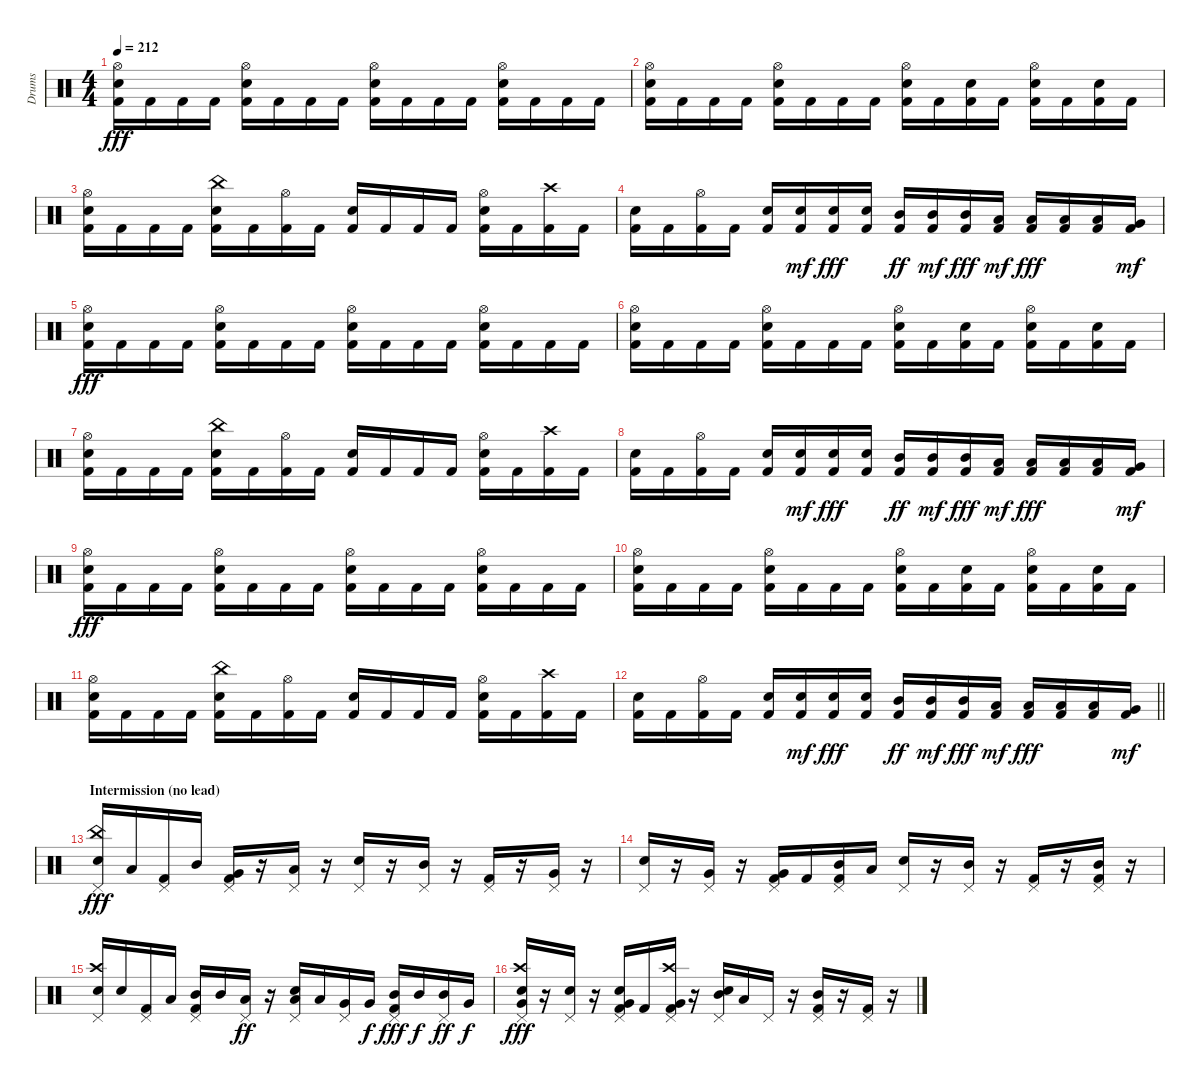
\track ("Drums" "Drums") {instrument percussion}
\staff {score}
\articulation defaults
\ts (4 4)
\tempo 212
\clef neutral
\ks c
("Kick (hit) 2" "Snare (hit) 2" "Hi-Hat (open)").16{dy fff} "Kick (hit) 2".16 "Kick (hit) 2".16 "Kick (hit) 2".16 ("Kick (hit) 2" "Snare (hit) 2" "Hi-Hat (open)").16 "Kick (hit) 2".16 "Kick (hit) 2".16 "Kick (hit) 2".16 ("Kick (hit) 2" "Snare (hit) 2" "Hi-Hat (open)").16 "Kick (hit) 2".16 "Kick (hit) 2".16 "Kick (hit) 2".16 ("Kick (hit) 2" "Snare (hit) 2" "Hi-Hat (open)").16 "Kick (hit) 2".16 "Kick (hit) 2".16 "Kick (hit) 2".16 |
("Kick (hit) 2" "Snare (hit) 2" "Hi-Hat (open)").16 "Kick (hit) 2".16 "Kick (hit) 2".16 "Kick (hit) 2".16 ("Kick (hit) 2" "Snare (hit) 2" "Hi-Hat (open)").16 "Kick (hit) 2".16 "Kick (hit) 2".16 "Kick (hit) 2".16 ("Kick (hit) 2" "Snare (hit) 2" "Hi-Hat (open)").16 "Kick (hit) 2".16 ("Kick (hit) 2" "Snare (hit) 2").16 "Kick (hit) 2".16 ("Kick (hit) 2" "Snare (hit) 2" "Hi-Hat (open)").16 "Kick (hit) 2".16 ("Kick (hit) 2" "Snare (hit) 2").16 "Kick (hit) 2".16 |
("Kick (hit) 2" "Snare (hit) 2" "Hi-Hat (open)").16 "Kick (hit) 2".16 "Kick (hit) 2".16 "Kick (hit) 2".16 ("Kick (hit) 2" "Snare (hit) 2" "China (hit)").16 "Kick (hit) 2".16 ("Kick (hit) 2" "Hi-Hat (open)").16 "Kick (hit) 2".16 ("Kick (hit) 2" "Snare (hit) 2").16 "Kick (hit) 2".16 "Kick (hit) 2".16 "Kick (hit) 2".16 ("Kick (hit) 2" "Snare (hit) 2" "Hi-Hat (open)").16 "Kick (hit) 2".16 ("Kick (hit) 2" "Crash high (hit)").16 "Kick (hit) 2".16 |
("Kick (hit) 2" "Snare (hit) 2").16 "Kick (hit) 2".16 ("Kick (hit) 2" "Hi-Hat (open)").16 "Kick (hit) 2".16 ("Kick (hit) 2" "Snare (hit) 2").16 ("Kick (hit) 2" "Snare (hit) 2").16{dy mf} ("Kick (hit) 2" "Snare (hit) 2").16{dy fff} ("Kick (hit) 2" "Snare (hit) 2").16 ("Kick (hit) 2" "Mid Tom (hit)").16{dy ff} ("Kick (hit) 2" "Mid Tom (hit)").16{dy mf} ("Kick (hit) 2" "Mid Tom (hit)").16{dy fff} ("Kick (hit) 2" "Low Tom (hit)").16{dy mf} ("Kick (hit) 2" "Low Tom (hit)").16{dy fff} ("Kick (hit) 2" "Low Tom (hit)").16 ("Kick (hit) 2" "Low Tom (hit)").16 ("Kick (hit) 2" "Very Low Tom (hit)").16{dy mf} |
("Kick (hit) 2" "Snare (hit) 2" "Hi-Hat (open)").16{dy fff} "Kick (hit) 2".16 "Kick (hit) 2".16 "Kick (hit) 2".16 ("Kick (hit) 2" "Snare (hit) 2" "Hi-Hat (open)").16 "Kick (hit) 2".16 "Kick (hit) 2".16 "Kick (hit) 2".16 ("Kick (hit) 2" "Snare (hit) 2" "Hi-Hat (open)").16 "Kick (hit) 2".16 "Kick (hit) 2".16 "Kick (hit) 2".16 ("Kick (hit) 2" "Snare (hit) 2" "Hi-Hat (open)").16 "Kick (hit) 2".16 "Kick (hit) 2".16 "Kick (hit) 2".16 |
("Kick (hit) 2" "Snare (hit) 2" "Hi-Hat (open)").16 "Kick (hit) 2".16 "Kick (hit) 2".16 "Kick (hit) 2".16 ("Kick (hit) 2" "Snare (hit) 2" "Hi-Hat (open)").16 "Kick (hit) 2".16 "Kick (hit) 2".16 "Kick (hit) 2".16 ("Kick (hit) 2" "Snare (hit) 2" "Hi-Hat (open)").16 "Kick (hit) 2".16 ("Kick (hit) 2" "Snare (hit) 2").16 "Kick (hit) 2".16 ("Kick (hit) 2" "Snare (hit) 2" "Hi-Hat (open)").16 "Kick (hit) 2".16 ("Kick (hit) 2" "Snare (hit) 2").16 "Kick (hit) 2".16 |
("Kick (hit) 2" "Snare (hit) 2" "Hi-Hat (open)").16 "Kick (hit) 2".16 "Kick (hit) 2".16 "Kick (hit) 2".16 ("Kick (hit) 2" "Snare (hit) 2" "China (hit)").16 "Kick (hit) 2".16 ("Kick (hit) 2" "Hi-Hat (open)").16 "Kick (hit) 2".16 ("Kick (hit) 2" "Snare (hit) 2").16 "Kick (hit) 2".16 "Kick (hit) 2".16 "Kick (hit) 2".16 ("Kick (hit) 2" "Snare (hit) 2" "Hi-Hat (open)").16 "Kick (hit) 2".16 ("Kick (hit) 2" "Crash high (hit)").16 "Kick (hit) 2".16 |
("Kick (hit) 2" "Snare (hit) 2").16 "Kick (hit) 2".16 ("Kick (hit) 2" "Hi-Hat (open)").16 "Kick (hit) 2".16 ("Kick (hit) 2" "Snare (hit) 2").16 ("Kick (hit) 2" "Snare (hit) 2").16{dy mf} ("Kick (hit) 2" "Snare (hit) 2").16{dy fff} ("Kick (hit) 2" "Snare (hit) 2").16 ("Kick (hit) 2" "Mid Tom (hit)").16{dy ff} ("Kick (hit) 2" "Mid Tom (hit)").16{dy mf} ("Kick (hit) 2" "Mid Tom (hit)").16{dy fff} ("Kick (hit) 2" "Low Tom (hit)").16{dy mf} ("Kick (hit) 2" "Low Tom (hit)").16{dy fff} ("Kick (hit) 2" "Low Tom (hit)").16 ("Kick (hit) 2" "Low Tom (hit)").16 ("Kick (hit) 2" "Very Low Tom (hit)").16{dy mf} |
("Kick (hit) 2" "Snare (hit) 2" "Hi-Hat (open)").16{dy fff} "Kick (hit) 2".16 "Kick (hit) 2".16 "Kick (hit) 2".16 ("Kick (hit) 2" "Snare (hit) 2" "Hi-Hat (open)").16 "Kick (hit) 2".16 "Kick (hit) 2".16 "Kick (hit) 2".16 ("Kick (hit) 2" "Snare (hit) 2" "Hi-Hat (open)").16 "Kick (hit) 2".16 "Kick (hit) 2".16 "Kick (hit) 2".16 ("Kick (hit) 2" "Snare (hit) 2" "Hi-Hat (open)").16 "Kick (hit) 2".16 "Kick (hit) 2".16 "Kick (hit) 2".16 |
("Kick (hit) 2" "Snare (hit) 2" "Hi-Hat (open)").16 "Kick (hit) 2".16 "Kick (hit) 2".16 "Kick (hit) 2".16 ("Kick (hit) 2" "Snare (hit) 2" "Hi-Hat (open)").16 "Kick (hit) 2".16 "Kick (hit) 2".16 "Kick (hit) 2".16 ("Kick (hit) 2" "Snare (hit) 2" "Hi-Hat (open)").16 "Kick (hit) 2".16 ("Kick (hit) 2" "Snare (hit) 2").16 "Kick (hit) 2".16 ("Kick (hit) 2" "Snare (hit) 2" "Hi-Hat (open)").16 "Kick (hit) 2".16 ("Kick (hit) 2" "Snare (hit) 2").16 "Kick (hit) 2".16 |
("Kick (hit) 2" "Snare (hit) 2" "Hi-Hat (open)").16 "Kick (hit) 2".16 "Kick (hit) 2".16 "Kick (hit) 2".16 ("Kick (hit) 2" "Snare (hit) 2" "China (hit)").16 "Kick (hit) 2".16 ("Kick (hit) 2" "Hi-Hat (open)").16 "Kick (hit) 2".16 ("Kick (hit) 2" "Snare (hit) 2").16 "Kick (hit) 2".16 "Kick (hit) 2".16 "Kick (hit) 2".16 ("Kick (hit) 2" "Snare (hit) 2" "Hi-Hat (open)").16 "Kick (hit) 2".16 ("Kick (hit) 2" "Crash high (hit)").16 "Kick (hit) 2".16 |
\barLineRight lightlight
("Kick (hit) 2" "Snare (hit) 2").16 "Kick (hit) 2".16 ("Kick (hit) 2" "Hi-Hat (open)").16 "Kick (hit) 2".16 ("Kick (hit) 2" "Snare (hit) 2").16 ("Kick (hit) 2" "Snare (hit) 2").16{dy mf} ("Kick (hit) 2" "Snare (hit) 2").16{dy fff} ("Kick (hit) 2" "Snare (hit) 2").16 ("Kick (hit) 2" "Mid Tom (hit)").16{dy ff} ("Kick (hit) 2" "Mid Tom (hit)").16{dy mf} ("Kick (hit) 2" "Mid Tom (hit)").16{dy fff} ("Kick (hit) 2" "Low Tom (hit)").16{dy mf} ("Kick (hit) 2" "Low Tom (hit)").16{dy fff} ("Kick (hit) 2" "Low Tom (hit)").16 ("Kick (hit) 2" "Low Tom (hit)").16 ("Kick (hit) 2" "Very Low Tom (hit)").16{dy mf} |
\section ("" "Intermission (no lead)")
("Snare (hit) 2" "Pedal Hi-Hat (hit)" "China (hit)").16{dy fff} "Low Tom (hit)".16 ("Kick (hit) 2" "Pedal Hi-Hat (hit)").16 "Mid Tom (hit)".16 ("Kick (hit) 2" "Pedal Hi-Hat (hit)" "Very Low Tom (hit)").16 r.16 ("Pedal Hi-Hat (hit)" "Low Floor Tom (hit)").16 r.16 ("Snare (hit) 2" "Pedal Hi-Hat (hit)").16 r.16 ("Pedal Hi-Hat (hit)" "Mid Tom (hit)").16 r.16 ("Kick (hit) 2" "Pedal Hi-Hat (hit)").16 r.16 ("Pedal Hi-Hat (hit)" "Very Low Tom (hit)").16 r.16 |
("Snare (hit) 2" "Pedal Hi-Hat (hit)").16 r.16 ("Pedal Hi-Hat (hit)" "Very Low Tom (hit)").16 r.16 ("Kick (hit) 2" "Pedal Hi-Hat (hit)" "Very Low Tom (hit)").16 "Kick (hit) 2".16 ("Kick (hit) 2" "Pedal Hi-Hat (hit)" "Mid Tom (hit)").16 "Low Tom (hit)".16 ("Snare (hit) 2" "Pedal Hi-Hat (hit)").16 r.16 ("Pedal Hi-Hat (hit)" "Mid Tom (hit)").16 r.16 ("Kick (hit) 2" "Pedal Hi-Hat (hit)").16 r.16 ("Kick (hit) 2" "Pedal Hi-Hat (hit)" "Mid Tom (hit)").16 r.16 |
("Snare (hit) 2" "Pedal Hi-Hat (hit)" "Crash high (hit)").16 "Snare (hit) 2".16 ("Kick (hit) 2" "Pedal Hi-Hat (hit)").16 "Low Tom (hit)".16 ("Kick (hit) 2" "Pedal Hi-Hat (hit)" "Mid Tom (hit)").16 "Mid Tom (hit)".16 ("Pedal Hi-Hat (hit)" "Low Tom (hit)").16{dy ff} r.16 ("Snare (hit) 2" "Pedal Hi-Hat (hit)" "Low Floor Tom (hit)").16 "Low Floor Tom (hit)".16 ("Pedal Hi-Hat (hit)" "Very Low Tom (hit)").16 "Very Low Tom (hit)".16{dy f} ("Kick (hit) 2" "Pedal Hi-Hat (hit)" "Mid Tom (hit)").16{dy fff} "Mid Tom (hit)".16{dy f} ("Pedal Hi-Hat (hit)" "Mid Tom (hit)").16{dy ff} "Very Low Tom (hit)".16{dy f} |
("Snare (hit) 2" "Pedal Hi-Hat (hit)" "Very Low Tom (hit)" "Crash high (hit)").16{dy fff} r.16 ("Snare (hit) 2" "Pedal Hi-Hat (hit)").16 r.16 ("Kick (hit) 2" "Snare (hit) 2" "Pedal Hi-Hat (hit)" "Very Low Tom (hit)").16 "Kick (hit) 2".16 ("Kick (hit) 2" "Pedal Hi-Hat (hit)" "Very Low Tom (hit)" "Crash high (hit)").16 r.16 ("Snare (hit) 2" "Pedal Hi-Hat (hit)" "Mid Tom (hit)").16 "Low Tom (hit)".16 "Pedal Hi-Hat (hit)".16 r.16 ("Kick (hit) 2" "Pedal Hi-Hat (hit)" "Mid Tom (hit)").16 r.16 ("Kick (hit) 2" "Pedal Hi-Hat (hit)").16 r.16
